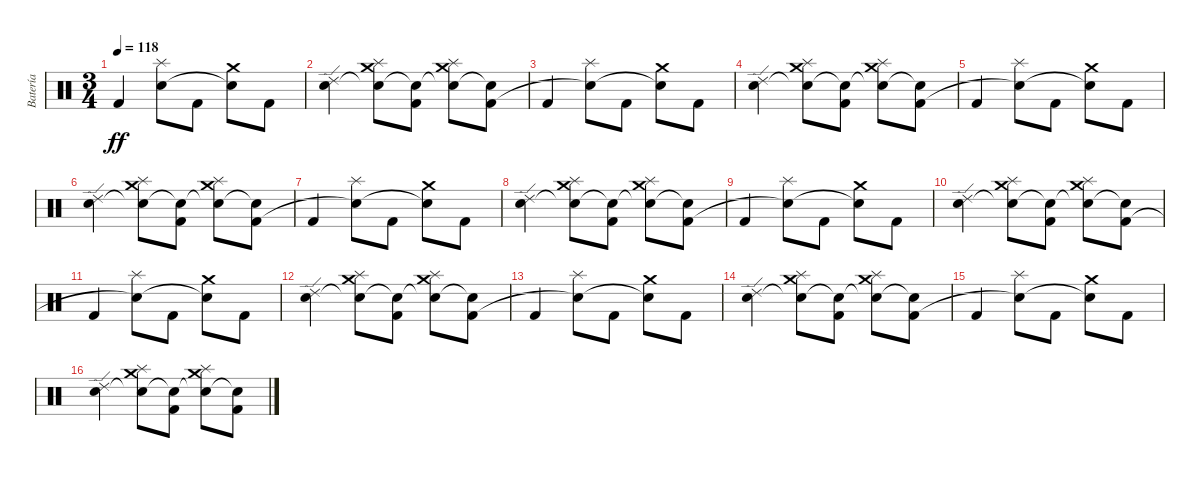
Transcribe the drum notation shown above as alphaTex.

\track ("Batería" "Batería") {instrument percussion}
\staff {score}
\articulation defaults
\ts (3 4)
\tempo 118
\clef neutral
\ks c "Kick (hit) 2".4{dy ff volume 16}
("Splash (hit)" "Snare (hit)"{t}).8 "Kick (hit) 2".8 ("Crash medium (hit)" "Snare (hit)"{t}).8 "Kick (hit) 2".8 |
("Snare (hit) 2" "Ride (edge) 2").4 ("Snare (hit)"{t} "Splash (hit)" "Crash medium (hit)").8 ("Snare (hit)"{t} "Kick (hit) 2").8 ("Snare (hit)"{t} "Crash medium (hit)" "Splash (hit)").8 ("Snare (hit)"{t} "Kick (hit) 2").8 |
"Kick (hit) 2".4{volume 16} ("Splash (hit)" "Snare (hit)"{t}).8 "Kick (hit) 2".8 ("Crash medium (hit)" "Snare (hit)"{t}).8 "Kick (hit) 2".8 |
("Snare (hit) 2" "Ride (edge) 2").4 ("Snare (hit)"{t} "Splash (hit)" "Crash medium (hit)").8 ("Snare (hit)"{t} "Kick (hit) 2").8 ("Snare (hit)"{t} "Crash medium (hit)" "Splash (hit)").8 ("Snare (hit)"{t} "Kick (hit) 2").8 |
"Kick (hit) 2".4{volume 16} ("Splash (hit)" "Snare (hit)"{t}).8 "Kick (hit) 2".8 ("Crash medium (hit)" "Snare (hit)"{t}).8 "Kick (hit) 2".8 |
("Snare (hit) 2" "Ride (edge) 2").4 ("Snare (hit)"{t} "Splash (hit)" "Crash medium (hit)").8 ("Snare (hit)"{t} "Kick (hit) 2").8 ("Snare (hit)"{t} "Crash medium (hit)" "Splash (hit)").8 ("Snare (hit)"{t} "Kick (hit) 2").8 |
"Kick (hit) 2".4{volume 16} ("Splash (hit)" "Snare (hit)"{t}).8 "Kick (hit) 2".8 ("Crash medium (hit)" "Snare (hit)"{t}).8 "Kick (hit) 2".8 |
("Snare (hit) 2" "Ride (edge) 2").4 ("Snare (hit)"{t} "Splash (hit)" "Crash medium (hit)").8 ("Snare (hit)"{t} "Kick (hit) 2").8 ("Snare (hit)"{t} "Crash medium (hit)" "Splash (hit)").8 ("Snare (hit)"{t} "Kick (hit) 2").8 |
"Kick (hit) 2".4{volume 16} ("Splash (hit)" "Snare (hit)"{t}).8 "Kick (hit) 2".8 ("Crash medium (hit)" "Snare (hit)"{t}).8 "Kick (hit) 2".8 |
("Snare (hit) 2" "Ride (edge) 2").4 ("Snare (hit)"{t} "Splash (hit)" "Crash medium (hit)").8 ("Snare (hit)"{t} "Kick (hit) 2").8 ("Snare (hit)"{t} "Crash medium (hit)" "Splash (hit)").8 ("Snare (hit)"{t} "Kick (hit) 2").8 |
"Kick (hit) 2".4{volume 16} ("Splash (hit)" "Snare (hit)"{t}).8 "Kick (hit) 2".8 ("Crash medium (hit)" "Snare (hit)"{t}).8 "Kick (hit) 2".8 |
("Snare (hit) 2" "Ride (edge) 2").4 ("Snare (hit)"{t} "Splash (hit)" "Crash medium (hit)").8 ("Snare (hit)"{t} "Kick (hit) 2").8 ("Snare (hit)"{t} "Crash medium (hit)" "Splash (hit)").8 ("Snare (hit)"{t} "Kick (hit) 2").8 |
"Kick (hit) 2".4{volume 16} ("Splash (hit)" "Snare (hit)"{t}).8 "Kick (hit) 2".8 ("Crash medium (hit)" "Snare (hit)"{t}).8 "Kick (hit) 2".8 |
("Snare (hit) 2" "Ride (edge) 2").4 ("Snare (hit)"{t} "Splash (hit)" "Crash medium (hit)").8 ("Snare (hit)"{t} "Kick (hit) 2").8 ("Snare (hit)"{t} "Crash medium (hit)" "Splash (hit)").8 ("Snare (hit)"{t} "Kick (hit) 2").8 |
"Kick (hit) 2".4 ("Splash (hit)" "Snare (hit)"{t}).8 "Kick (hit) 2".8 ("Crash medium (hit)" "Snare (hit)"{t}).8 "Kick (hit) 2".8 |
("Snare (hit) 2" "Ride (edge) 2").4 ("Snare (hit)"{t} "Splash (hit)" "Crash medium (hit)").8 ("Snare (hit)"{t} "Kick (hit) 2").8 ("Snare (hit)"{t} "Crash medium (hit)" "Splash (hit)").8 ("Snare (hit)"{t} "Kick (hit) 2").8
